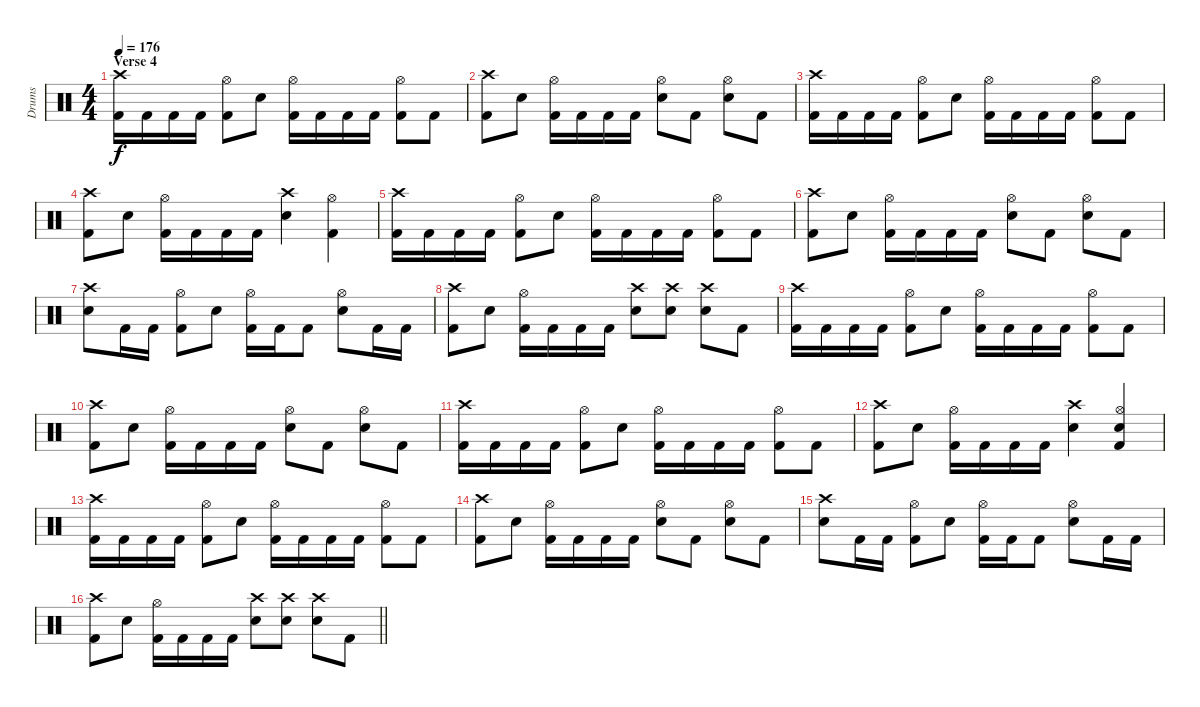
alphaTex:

\track ("Drums" "Drums") {instrument percussion}
\staff {score}
\articulation defaults
\ts (4 4)
\section ("" "Verse 4")
\tempo 176
\clef neutral
\ks c
("Crash high (hit)" "Kick (hit) 2").16{dy f} "Kick (hit) 2".16 "Kick (hit) 2".16 "Kick (hit) 2".16 ("Hi-Hat (open)" "Kick (hit) 2").8 "Snare (hit) 2".8 ("Hi-Hat (open)" "Kick (hit) 2").16 "Kick (hit) 2".16 "Kick (hit) 2".16 "Kick (hit) 2".16 ("Hi-Hat (open)" "Kick (hit) 2").8 "Kick (hit) 2".8 |
("Crash high (hit)" "Kick (hit) 2").8 "Snare (hit) 2".8 ("Hi-Hat (open)" "Kick (hit) 2").16 "Kick (hit) 2".16 "Kick (hit) 2".16 "Kick (hit) 2".16 ("Hi-Hat (open)" "Snare (hit) 2").8 "Kick (hit) 2".8 ("Hi-Hat (open)" "Snare (hit) 2").8 "Kick (hit) 2".8 |
("Crash high (hit)" "Kick (hit) 2").16 "Kick (hit) 2".16 "Kick (hit) 2".16 "Kick (hit) 2".16 ("Hi-Hat (open)" "Kick (hit) 2").8 "Snare (hit) 2".8 ("Hi-Hat (open)" "Kick (hit) 2").16 "Kick (hit) 2".16 "Kick (hit) 2".16 "Kick (hit) 2".16 ("Hi-Hat (open)" "Kick (hit) 2").8 "Kick (hit) 2".8 |
("Crash high (hit)" "Kick (hit) 2").8 "Snare (hit) 2".8 ("Hi-Hat (open)" "Kick (hit) 2").16 "Kick (hit) 2".16 "Kick (hit) 2".16 "Kick (hit) 2".16 ("Crash high (hit)" "Snare (hit) 2").4 ("Hi-Hat (open)" "Kick (hit) 2").4 |
("Crash high (hit)" "Kick (hit) 2").16 "Kick (hit) 2".16 "Kick (hit) 2".16 "Kick (hit) 2".16 ("Hi-Hat (open)" "Kick (hit) 2").8 "Snare (hit) 2".8 ("Hi-Hat (open)" "Kick (hit) 2").16 "Kick (hit) 2".16 "Kick (hit) 2".16 "Kick (hit) 2".16 ("Hi-Hat (open)" "Kick (hit) 2").8 "Kick (hit) 2".8 |
("Crash high (hit)" "Kick (hit) 2").8 "Snare (hit) 2".8 ("Hi-Hat (open)" "Kick (hit) 2").16 "Kick (hit) 2".16 "Kick (hit) 2".16 "Kick (hit) 2".16 ("Hi-Hat (open)" "Snare (hit) 2").8 "Kick (hit) 2".8 ("Hi-Hat (open)" "Snare (hit) 2").8 "Kick (hit) 2".8 |
("Crash high (hit)" "Snare (hit) 2").8 "Kick (hit) 2".16 "Kick (hit) 2".16 ("Hi-Hat (open)" "Kick (hit) 2").8 "Snare (hit) 2".8 ("Hi-Hat (open)" "Kick (hit) 2").16 "Kick (hit) 2".16 "Kick (hit) 2".8 ("Hi-Hat (open)" "Snare (hit) 2").8 "Kick (hit) 2".16 "Kick (hit) 2".16 |
("Crash high (hit)" "Kick (hit) 2").8 "Snare (hit) 2".8 ("Hi-Hat (open)" "Kick (hit) 2").16 "Kick (hit) 2".16 "Kick (hit) 2".16 "Kick (hit) 2".16 ("Crash high (hit)" "Snare (hit) 2").8 ("Crash high (hit)" "Snare (hit) 2").8 ("Crash high (hit)" "Snare (hit) 2").8 "Kick (hit) 2".8 |
("Crash high (hit)" "Kick (hit) 2").16 "Kick (hit) 2".16 "Kick (hit) 2".16 "Kick (hit) 2".16 ("Hi-Hat (open)" "Kick (hit) 2").8 "Snare (hit) 2".8 ("Hi-Hat (open)" "Kick (hit) 2").16 "Kick (hit) 2".16 "Kick (hit) 2".16 "Kick (hit) 2".16 ("Hi-Hat (open)" "Kick (hit) 2").8 "Kick (hit) 2".8 |
("Crash high (hit)" "Kick (hit) 2").8 "Snare (hit) 2".8 ("Hi-Hat (open)" "Kick (hit) 2").16 "Kick (hit) 2".16 "Kick (hit) 2".16 "Kick (hit) 2".16 ("Hi-Hat (open)" "Snare (hit) 2").8 "Kick (hit) 2".8 ("Hi-Hat (open)" "Snare (hit) 2").8 "Kick (hit) 2".8 |
("Crash high (hit)" "Kick (hit) 2").16 "Kick (hit) 2".16 "Kick (hit) 2".16 "Kick (hit) 2".16 ("Hi-Hat (open)" "Kick (hit) 2").8 "Snare (hit) 2".8 ("Hi-Hat (open)" "Kick (hit) 2").16 "Kick (hit) 2".16 "Kick (hit) 2".16 "Kick (hit) 2".16 ("Hi-Hat (open)" "Kick (hit) 2").8 "Kick (hit) 2".8 |
("Crash high (hit)" "Kick (hit) 2").8 "Snare (hit) 2".8 ("Hi-Hat (open)" "Kick (hit) 2").16 "Kick (hit) 2".16 "Kick (hit) 2".16 "Kick (hit) 2".16 ("Crash high (hit)" "Snare (hit) 2").4 ("Hi-Hat (open)" "Snare (hit) 2" "Kick (hit) 2").4 |
("Crash high (hit)" "Kick (hit) 2").16 "Kick (hit) 2".16 "Kick (hit) 2".16 "Kick (hit) 2".16 ("Hi-Hat (open)" "Kick (hit) 2").8 "Snare (hit) 2".8 ("Hi-Hat (open)" "Kick (hit) 2").16 "Kick (hit) 2".16 "Kick (hit) 2".16 "Kick (hit) 2".16 ("Hi-Hat (open)" "Kick (hit) 2").8 "Kick (hit) 2".8 |
("Crash high (hit)" "Kick (hit) 2").8 "Snare (hit) 2".8 ("Hi-Hat (open)" "Kick (hit) 2").16 "Kick (hit) 2".16 "Kick (hit) 2".16 "Kick (hit) 2".16 ("Hi-Hat (open)" "Snare (hit) 2").8 "Kick (hit) 2".8 ("Hi-Hat (open)" "Snare (hit) 2").8 "Kick (hit) 2".8 |
("Crash high (hit)" "Snare (hit) 2").8 "Kick (hit) 2".16 "Kick (hit) 2".16 ("Hi-Hat (open)" "Kick (hit) 2").8 "Snare (hit) 2".8 ("Hi-Hat (open)" "Kick (hit) 2").16 "Kick (hit) 2".16 "Kick (hit) 2".8 ("Hi-Hat (open)" "Snare (hit) 2").8 "Kick (hit) 2".16 "Kick (hit) 2".16 |
\barLineRight lightlight
("Crash high (hit)" "Kick (hit) 2").8 "Snare (hit) 2".8 ("Hi-Hat (open)" "Kick (hit) 2").16 "Kick (hit) 2".16 "Kick (hit) 2".16 "Kick (hit) 2".16 ("Crash high (hit)" "Snare (hit) 2").8 ("Crash high (hit)" "Snare (hit) 2").8 ("Crash high (hit)" "Snare (hit) 2").8 "Kick (hit) 2".8
